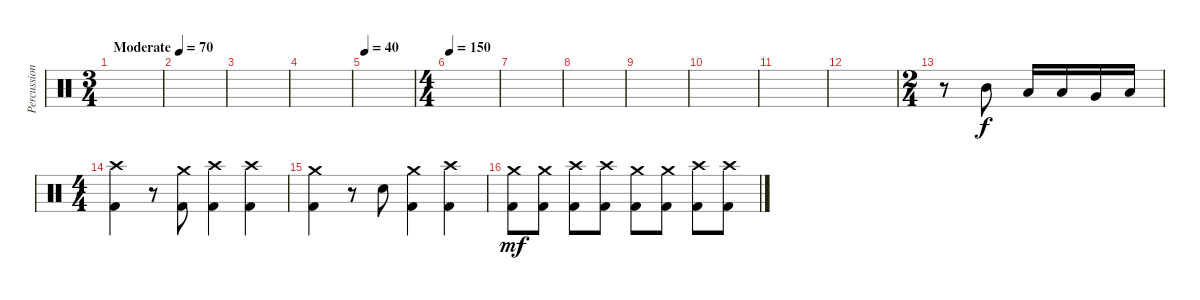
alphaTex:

\track ("Percussion" "Percussion") {instrument percussion}
\staff {score}
\articulation defaults
\ts (3 4)
\tempo (70 "Moderate")
\clef neutral
\ks c
|
|
|
|
\tempo 40
|
\ts (4 4)
\tempo 150
|
|
|
|
|
|
|
\ts (2 4)
r.8 "Mid Tom (hit)".8 "Low Tom (hit)".16 "Low Tom (hit)".16 "Very Low Tom (hit)".16 "Low Floor Tom (hit)".16 |
\ts (4 4)
("Crash high (hit)" "Kick (hit) 2").4 r.8 ("Kick (hit) 2" "Crash medium (hit)").8 ("Kick (hit) 2" "Crash high (hit)").4 ("Kick (hit) 2" "Crash high (hit)").4 |
("Crash medium (hit)" "Kick (hit) 2").4 r.8 "Snare (hit) 2".8 ("Crash medium (hit)" "Kick (hit) 2").4 ("Crash high (hit)" "Kick (hit) 2").4 |
("Crash medium (hit)" "Kick (hit) 2").8{dy mf} ("Crash medium (hit)" "Kick (hit) 2").8 ("Crash high (hit)" "Kick (hit) 2").8 ("Crash high (hit)" "Kick (hit) 2").8 ("Crash medium (hit)" "Kick (hit) 2").8 ("Crash medium (hit)" "Kick (hit) 2").8 ("Crash high (hit)" "Kick (hit) 2").8 ("Crash high (hit)" "Kick (hit) 2").8
